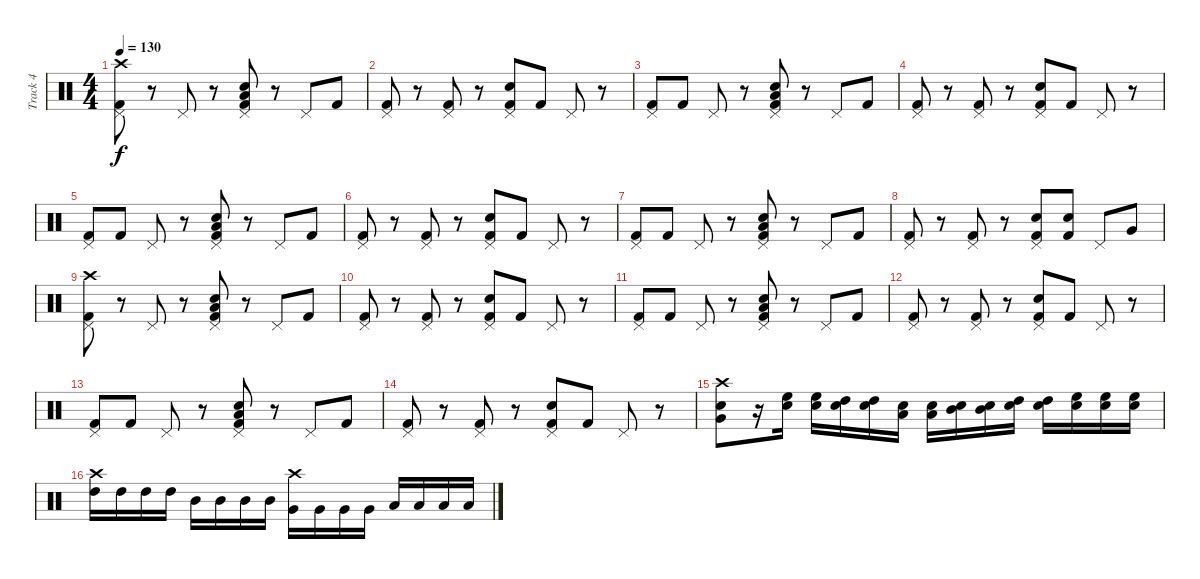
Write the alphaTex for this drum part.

\track ("Track 4" "Track 4") {instrument percussion}
\staff {score}
\articulation defaults
\ts (4 4)
\tempo 130
\clef neutral
\ks c
("Kick (hit) 2" "Pedal Hi-Hat (hit)" "Crash high (hit)").8{dy f} r.8 "Pedal Hi-Hat (hit)".8 r.8 ("Low Tom (hit)" "Snare (hit) 2" "Kick (hit) 2" "Pedal Hi-Hat (hit)").8 r.8 "Pedal Hi-Hat (hit)".8 "Kick (hit) 2".8 |
("Kick (hit) 2" "Pedal Hi-Hat (hit)").8 r.8 ("Pedal Hi-Hat (hit)" "Kick (hit) 2").8 r.8 ("Pedal Hi-Hat (hit)" "Kick (hit) 2" "Snare (hit) 2").8 "Kick (hit) 2".8 "Pedal Hi-Hat (hit)".8 r.8 |
("Kick (hit) 2" "Pedal Hi-Hat (hit)").8 "Kick (hit) 2".8 "Pedal Hi-Hat (hit)".8 r.8 ("Low Tom (hit)" "Snare (hit) 2" "Kick (hit) 2" "Pedal Hi-Hat (hit)").8 r.8 "Pedal Hi-Hat (hit)".8 "Kick (hit) 2".8 |
("Kick (hit) 2" "Pedal Hi-Hat (hit)").8 r.8 ("Pedal Hi-Hat (hit)" "Kick (hit) 2").8 r.8 ("Pedal Hi-Hat (hit)" "Kick (hit) 2" "Snare (hit) 2").8 "Kick (hit) 2".8 "Pedal Hi-Hat (hit)".8 r.8 |
("Kick (hit) 2" "Pedal Hi-Hat (hit)").8 "Kick (hit) 2".8 "Pedal Hi-Hat (hit)".8 r.8 ("Low Tom (hit)" "Snare (hit) 2" "Kick (hit) 2" "Pedal Hi-Hat (hit)").8 r.8 "Pedal Hi-Hat (hit)".8 "Kick (hit) 2".8 |
("Kick (hit) 2" "Pedal Hi-Hat (hit)").8 r.8 ("Pedal Hi-Hat (hit)" "Kick (hit) 2").8 r.8 ("Pedal Hi-Hat (hit)" "Kick (hit) 2" "Snare (hit) 2").8 "Kick (hit) 2".8 "Pedal Hi-Hat (hit)".8 r.8 |
("Kick (hit) 2" "Pedal Hi-Hat (hit)").8 "Kick (hit) 2".8 "Pedal Hi-Hat (hit)".8 r.8 ("Low Tom (hit)" "Snare (hit) 2" "Kick (hit) 2" "Pedal Hi-Hat (hit)").8 r.8 "Pedal Hi-Hat (hit)".8 "Kick (hit) 2".8 |
("Kick (hit) 2" "Pedal Hi-Hat (hit)").8 r.8 ("Pedal Hi-Hat (hit)" "Kick (hit) 2").8 r.8 ("Pedal Hi-Hat (hit)" "Kick (hit) 2" "Electric Snare (hit)").8 ("Kick (hit) 2" "Electric Snare (hit)").8 "Pedal Hi-Hat (hit)".8 "Very Low Tom (hit)".8 |
("Kick (hit) 2" "Pedal Hi-Hat (hit)" "Crash high (hit)").8 r.8 "Pedal Hi-Hat (hit)".8 r.8 ("Low Tom (hit)" "Snare (hit) 2" "Kick (hit) 2" "Pedal Hi-Hat (hit)").8 r.8 "Pedal Hi-Hat (hit)".8 "Kick (hit) 2".8 |
("Kick (hit) 2" "Pedal Hi-Hat (hit)").8 r.8 ("Pedal Hi-Hat (hit)" "Kick (hit) 2").8 r.8 ("Pedal Hi-Hat (hit)" "Kick (hit) 2" "Snare (hit) 2").8 "Kick (hit) 2".8 "Pedal Hi-Hat (hit)".8 r.8 |
("Kick (hit) 2" "Pedal Hi-Hat (hit)").8 "Kick (hit) 2".8 "Pedal Hi-Hat (hit)".8 r.8 ("Low Tom (hit)" "Snare (hit) 2" "Kick (hit) 2" "Pedal Hi-Hat (hit)").8 r.8 "Pedal Hi-Hat (hit)".8 "Kick (hit) 2".8 |
("Kick (hit) 2" "Pedal Hi-Hat (hit)").8 r.8 ("Pedal Hi-Hat (hit)" "Kick (hit) 2").8 r.8 ("Pedal Hi-Hat (hit)" "Kick (hit) 2" "Snare (hit) 2").8 "Kick (hit) 2".8 "Pedal Hi-Hat (hit)".8 r.8 |
("Kick (hit) 2" "Pedal Hi-Hat (hit)").8 "Kick (hit) 2".8 "Pedal Hi-Hat (hit)".8 r.8 ("Low Tom (hit)" "Snare (hit) 2" "Kick (hit) 2" "Pedal Hi-Hat (hit)").8 r.8 "Pedal Hi-Hat (hit)".8 "Kick (hit) 2".8 |
("Kick (hit) 2" "Pedal Hi-Hat (hit)").8 r.8 ("Pedal Hi-Hat (hit)" "Kick (hit) 2").8 r.8 ("Pedal Hi-Hat (hit)" "Kick (hit) 2" "Snare (hit) 2").8 "Kick (hit) 2".8 "Pedal Hi-Hat (hit)".8 r.8 |
("Snare (hit) 2" "Very Low Tom (hit)" "Crash high (hit)").8 r.16 ("Electric Snare (hit)" "High Floor Tom (hit)").16 ("Electric Snare (hit)" "High Floor Tom (hit)").16 ("Electric Snare (hit)" "High Tom (hit)").16 ("Electric Snare (hit)" "High Tom (hit)").16 ("Electric Snare (hit)" "Low Tom (hit)").16 ("Electric Snare (hit)" "Low Tom (hit)").16 ("Electric Snare (hit)" "Mid Tom (hit)").16 ("Electric Snare (hit)" "Mid Tom (hit)").16 ("Electric Snare (hit)" "High Tom (hit)").16 ("Electric Snare (hit)" "High Tom (hit)").16 ("Electric Snare (hit)" "High Floor Tom (hit)").16 ("Electric Snare (hit)" "High Floor Tom (hit)").16 ("Electric Snare (hit)" "High Floor Tom (hit)").16 |
("High Tom (hit)" "Crash high (hit)").16 "High Tom (hit)".16 "High Tom (hit)".16 "High Tom (hit)".16 "Mid Tom (hit)".16 "Mid Tom (hit)".16 "Mid Tom (hit)".16 "Mid Tom (hit)".16 ("Very Low Tom (hit)" "Crash high (hit)").16 "Very Low Tom (hit)".16 "Very Low Tom (hit)".16 "Very Low Tom (hit)".16 "Low Floor Tom (hit)".16 "Low Floor Tom (hit)".16 "Low Floor Tom (hit)".16 "Low Floor Tom (hit)".16
